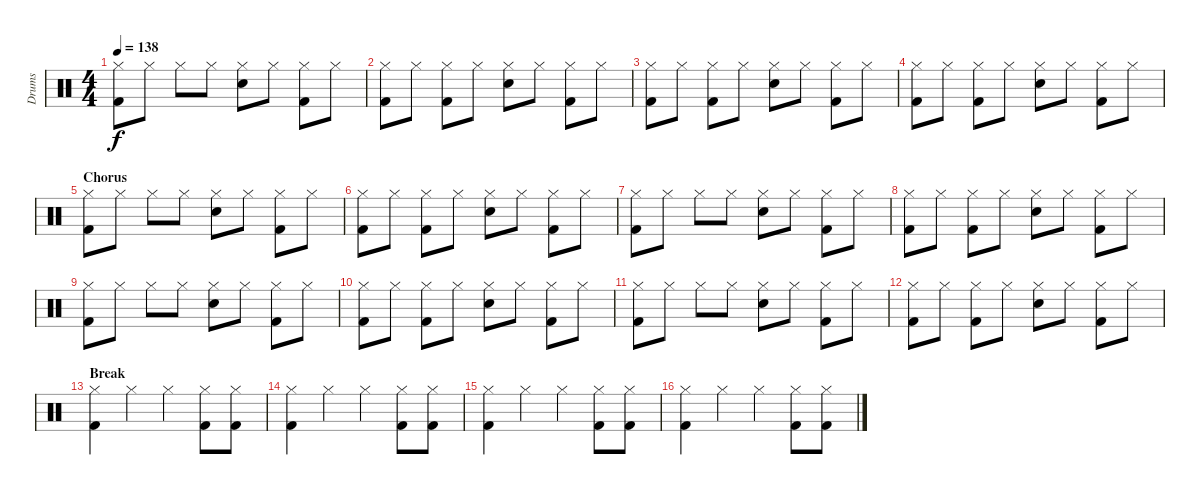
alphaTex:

\track ("Drums" "Drums") {instrument percussion}
\staff {score}
\articulation defaults
\ts (4 4)
\tempo 138
\clef neutral
\ks c
("Hi-Hat (closed)" "Kick (hit) 2").8{dy f} "Hi-Hat (closed)".8 "Hi-Hat (closed)".8 "Hi-Hat (closed)".8 ("Hi-Hat (closed)" "Electric Snare (hit)").8 "Hi-Hat (closed)".8 ("Hi-Hat (closed)" "Kick (hit) 2").8 "Hi-Hat (closed)".8 |
("Hi-Hat (closed)" "Kick (hit) 2").8 "Hi-Hat (closed)".8 ("Hi-Hat (closed)" "Kick (hit) 2").8 "Hi-Hat (closed)".8 ("Hi-Hat (closed)" "Electric Snare (hit)").8 "Hi-Hat (closed)".8 ("Hi-Hat (closed)" "Kick (hit) 2").8 "Hi-Hat (closed)".8 |
("Hi-Hat (closed)" "Kick (hit) 2").8 "Hi-Hat (closed)".8 ("Hi-Hat (closed)" "Kick (hit) 2").8 "Hi-Hat (closed)".8 ("Hi-Hat (closed)" "Electric Snare (hit)").8 "Hi-Hat (closed)".8 ("Hi-Hat (closed)" "Kick (hit) 2").8 "Hi-Hat (closed)".8 |
("Hi-Hat (closed)" "Kick (hit) 2").8 "Hi-Hat (closed)".8 ("Hi-Hat (closed)" "Kick (hit) 2").8 "Hi-Hat (closed)".8 ("Hi-Hat (closed)" "Electric Snare (hit)").8 "Hi-Hat (closed)".8 ("Hi-Hat (closed)" "Kick (hit) 2").8 "Hi-Hat (closed)".8 |
\section ("" "Chorus")
("Hi-Hat (closed)" "Kick (hit) 2").8 "Hi-Hat (closed)".8 "Hi-Hat (closed)".8 "Hi-Hat (closed)".8 ("Hi-Hat (closed)" "Electric Snare (hit)").8 "Hi-Hat (closed)".8 ("Hi-Hat (closed)" "Kick (hit) 2").8 "Hi-Hat (closed)".8 |
("Hi-Hat (closed)" "Kick (hit) 2").8 "Hi-Hat (closed)".8 ("Hi-Hat (closed)" "Kick (hit) 2").8 "Hi-Hat (closed)".8 ("Hi-Hat (closed)" "Electric Snare (hit)").8 "Hi-Hat (closed)".8 ("Hi-Hat (closed)" "Kick (hit) 2").8 "Hi-Hat (closed)".8 |
("Hi-Hat (closed)" "Kick (hit) 2").8 "Hi-Hat (closed)".8 "Hi-Hat (closed)".8 "Hi-Hat (closed)".8 ("Hi-Hat (closed)" "Electric Snare (hit)").8 "Hi-Hat (closed)".8 ("Hi-Hat (closed)" "Kick (hit) 2").8 "Hi-Hat (closed)".8 |
("Hi-Hat (closed)" "Kick (hit) 2").8 "Hi-Hat (closed)".8 ("Hi-Hat (closed)" "Kick (hit) 2").8 "Hi-Hat (closed)".8 ("Hi-Hat (closed)" "Electric Snare (hit)").8 "Hi-Hat (closed)".8 ("Hi-Hat (closed)" "Kick (hit) 2").8 "Hi-Hat (closed)".8 |
("Hi-Hat (closed)" "Kick (hit) 2").8 "Hi-Hat (closed)".8 "Hi-Hat (closed)".8 "Hi-Hat (closed)".8 ("Hi-Hat (closed)" "Electric Snare (hit)").8 "Hi-Hat (closed)".8 ("Hi-Hat (closed)" "Kick (hit) 2").8 "Hi-Hat (closed)".8 |
("Hi-Hat (closed)" "Kick (hit) 2").8 "Hi-Hat (closed)".8 ("Hi-Hat (closed)" "Kick (hit) 2").8 "Hi-Hat (closed)".8 ("Hi-Hat (closed)" "Electric Snare (hit)").8 "Hi-Hat (closed)".8 ("Hi-Hat (closed)" "Kick (hit) 2").8 "Hi-Hat (closed)".8 |
("Hi-Hat (closed)" "Kick (hit) 2").8 "Hi-Hat (closed)".8 "Hi-Hat (closed)".8 "Hi-Hat (closed)".8 ("Hi-Hat (closed)" "Electric Snare (hit)").8 "Hi-Hat (closed)".8 ("Hi-Hat (closed)" "Kick (hit) 2").8 "Hi-Hat (closed)".8 |
("Hi-Hat (closed)" "Kick (hit) 2").8 "Hi-Hat (closed)".8 ("Hi-Hat (closed)" "Kick (hit) 2").8 "Hi-Hat (closed)".8 ("Hi-Hat (closed)" "Electric Snare (hit)").8 "Hi-Hat (closed)".8 ("Hi-Hat (closed)" "Kick (hit) 2").8 "Hi-Hat (closed)".8 |
\section ("" "Break")
("Hi-Hat (closed)" "Kick (hit) 2").4 "Hi-Hat (closed)".4 "Hi-Hat (closed)".4 ("Hi-Hat (closed)" "Kick (hit) 2").8 ("Hi-Hat (closed)" "Kick (hit) 2").8 |
("Hi-Hat (closed)" "Kick (hit) 2").4 "Hi-Hat (closed)".4 "Hi-Hat (closed)".4 ("Hi-Hat (closed)" "Kick (hit) 2").8 ("Hi-Hat (closed)" "Kick (hit) 2").8 |
("Hi-Hat (closed)" "Kick (hit) 2").4 "Hi-Hat (closed)".4 "Hi-Hat (closed)".4 ("Hi-Hat (closed)" "Kick (hit) 2").8 ("Hi-Hat (closed)" "Kick (hit) 2").8 |
("Hi-Hat (closed)" "Kick (hit) 2").4 "Hi-Hat (closed)".4 "Hi-Hat (closed)".4 ("Hi-Hat (closed)" "Kick (hit) 2").8 ("Hi-Hat (closed)" "Kick (hit) 2").8
